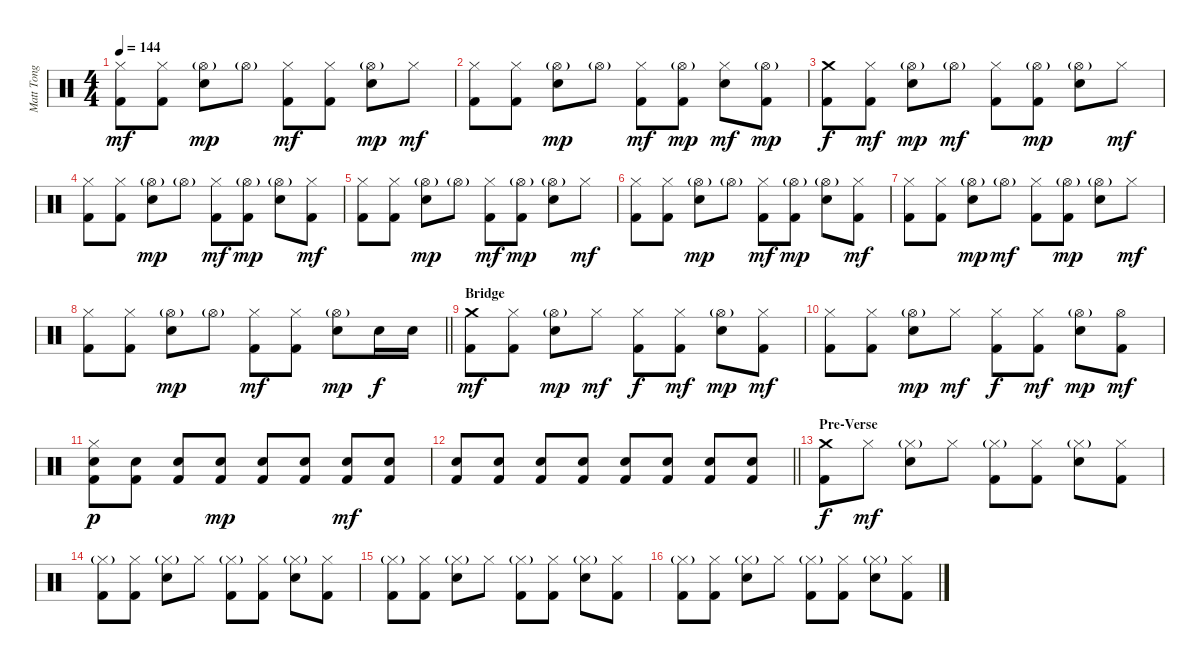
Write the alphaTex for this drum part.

\track ("Matt Tong" "Matt Tong") {instrument percussion}
\staff {score}
\articulation defaults
\ts (4 4)
\tempo 144
\clef neutral
\ks c
("Hi-Hat (closed)" "Kick (hit) 2").8{dy mf} ("Hi-Hat (closed)" "Kick (hit) 2").8 ("Hi-Hat (open)"{g} "Electric Snare (hit)").8{dy mp} "Hi-Hat (open)"{g}.8 ("Hi-Hat (closed)" "Kick (hit) 2").8{dy mf} ("Hi-Hat (closed)" "Kick (hit) 2").8 ("Hi-Hat (open)"{g} "Electric Snare (hit)").8{dy mp} "Hi-Hat (closed)".8{dy mf} |
("Hi-Hat (closed)" "Kick (hit) 2").8 ("Hi-Hat (closed)" "Kick (hit) 2").8 ("Hi-Hat (open)"{g} "Electric Snare (hit)").8{dy mp} "Hi-Hat (open)"{g}.8 ("Hi-Hat (closed)" "Kick (hit) 2").8{dy mf} ("Hi-Hat (open)"{g} "Kick (hit) 2").8{dy mp} ("Hi-Hat (closed)" "Electric Snare (hit)").8{dy mf} ("Hi-Hat (open)"{g} "Kick (hit) 2").8{dy mp} |
("Crash medium (hit)" "Kick (hit) 2").8{dy f} ("Hi-Hat (closed)" "Kick (hit) 2").8{dy mf} ("Hi-Hat (open)"{g} "Electric Snare (hit)").8{dy mp} "Hi-Hat (open)"{g}.8{dy mf} ("Hi-Hat (closed)" "Kick (hit) 2").8 ("Hi-Hat (open)"{g} "Kick (hit) 2").8{dy mp} ("Hi-Hat (open)"{g} "Electric Snare (hit)").8 "Hi-Hat (closed)".8{dy mf} |
("Hi-Hat (closed)" "Kick (hit) 2").8 ("Hi-Hat (closed)" "Kick (hit) 2").8 ("Hi-Hat (open)"{g} "Electric Snare (hit)").8{dy mp} "Hi-Hat (open)"{g}.8 ("Hi-Hat (closed)" "Kick (hit) 2").8{dy mf} ("Hi-Hat (open)"{g} "Kick (hit) 2").8{dy mp} ("Hi-Hat (open)"{g} "Electric Snare (hit)").8 ("Hi-Hat (closed)" "Kick (hit) 2").8{dy mf} |
("Hi-Hat (closed)" "Kick (hit) 2").8 ("Hi-Hat (closed)" "Kick (hit) 2").8 ("Hi-Hat (open)"{g} "Electric Snare (hit)").8{dy mp} "Hi-Hat (open)"{g}.8 ("Hi-Hat (closed)" "Kick (hit) 2").8{dy mf} ("Hi-Hat (open)"{g} "Kick (hit) 2").8{dy mp} ("Hi-Hat (open)"{g} "Electric Snare (hit)").8 "Hi-Hat (closed)".8{dy mf} |
("Hi-Hat (closed)" "Kick (hit) 2").8 ("Hi-Hat (closed)" "Kick (hit) 2").8 ("Hi-Hat (open)"{g} "Electric Snare (hit)").8{dy mp} "Hi-Hat (open)"{g}.8 ("Hi-Hat (closed)" "Kick (hit) 2").8{dy mf} ("Hi-Hat (open)"{g} "Kick (hit) 2").8{dy mp} ("Hi-Hat (open)"{g} "Electric Snare (hit)").8 ("Hi-Hat (closed)" "Kick (hit) 2").8{dy mf} |
("Hi-Hat (closed)" "Kick (hit) 2").8 ("Hi-Hat (closed)" "Kick (hit) 2").8 ("Hi-Hat (open)"{g} "Electric Snare (hit)").8{dy mp} "Hi-Hat (open)"{g}.8{dy mf} ("Hi-Hat (closed)" "Kick (hit) 2").8 ("Hi-Hat (open)"{g} "Kick (hit) 2").8{dy mp} ("Hi-Hat (open)"{g} "Electric Snare (hit)").8 "Hi-Hat (closed)".8{dy mf} |
\barLineRight lightlight
("Hi-Hat (closed)" "Kick (hit) 2").8 ("Hi-Hat (closed)" "Kick (hit) 2").8 ("Hi-Hat (open)"{g} "Electric Snare (hit)").8{dy mp} "Hi-Hat (open)"{g}.8 ("Hi-Hat (closed)" "Kick (hit) 2").8{dy mf} ("Hi-Hat (closed)" "Kick (hit) 2").8 ("Hi-Hat (open)"{g} "Electric Snare (hit)").8{dy mp} "Electric Snare (hit)".16{dy f} "Electric Snare (hit)".16 |
\section ("" "Bridge")
("Crash medium (hit)" "Kick (hit) 2").8{dy mf} ("Hi-Hat (closed)" "Kick (hit) 2").8 ("Hi-Hat (open)"{g} "Electric Snare (hit)").8{dy mp} "Hi-Hat (closed)".8{dy mf} ("Hi-Hat (closed)" "Kick (hit) 2").8{dy f} ("Hi-Hat (closed)" "Kick (hit) 2").8{dy mf} ("Hi-Hat (open)"{g} "Electric Snare (hit)").8{dy mp} ("Hi-Hat (closed)" "Kick (hit) 2").8{dy mf} |
("Hi-Hat (closed)" "Kick (hit) 2").8 ("Hi-Hat (closed)" "Kick (hit) 2").8 ("Hi-Hat (open)"{g} "Electric Snare (hit)").8{dy mp} "Hi-Hat (closed)".8{dy mf} ("Hi-Hat (closed)" "Kick (hit) 2").8{dy f} ("Hi-Hat (closed)" "Kick (hit) 2").8{dy mf} ("Hi-Hat (open)"{g} "Electric Snare (hit)").8{dy mp} ("Hi-Hat (open)" "Kick (hit) 2").8{dy mf} |
("Hi-Hat (closed)" "Electric Snare (hit)" "Kick (hit) 2").8{dy p} ("Electric Snare (hit)" "Kick (hit) 2").8 ("Electric Snare (hit)" "Kick (hit) 2").8 ("Electric Snare (hit)" "Kick (hit) 2").8{dy mp} ("Electric Snare (hit)" "Kick (hit) 2").8 ("Electric Snare (hit)" "Kick (hit) 2").8 ("Electric Snare (hit)" "Kick (hit) 2").8{dy mf} ("Electric Snare (hit)" "Kick (hit) 2").8 |
\barLineRight lightlight
("Electric Snare (hit)" "Kick (hit) 2").8 ("Electric Snare (hit)" "Kick (hit) 2").8 ("Electric Snare (hit)" "Kick (hit) 2").8 ("Electric Snare (hit)" "Kick (hit) 2").8 ("Electric Snare (hit)" "Kick (hit) 2").8 ("Electric Snare (hit)" "Kick (hit) 2").8 ("Electric Snare (hit)" "Kick (hit) 2").8 ("Electric Snare (hit)" "Kick (hit) 2").8 |
\section ("" "Pre-Verse")
("Crash medium (hit)" "Kick (hit) 2").8{dy f} "Hi-Hat (closed)".8{dy mf} ("Hi-Hat (closed)"{g} "Electric Snare (hit)").8 "Hi-Hat (closed)".8 ("Hi-Hat (closed)"{g} "Kick (hit) 2").8 ("Hi-Hat (closed)" "Kick (hit) 2").8 ("Hi-Hat (closed)"{g} "Electric Snare (hit)").8 ("Hi-Hat (closed)" "Kick (hit) 2").8 |
("Hi-Hat (closed)"{g} "Kick (hit) 2").8 ("Hi-Hat (closed)" "Kick (hit) 2").8 ("Hi-Hat (closed)"{g} "Electric Snare (hit)").8 "Hi-Hat (closed)".8 ("Hi-Hat (closed)"{g} "Kick (hit) 2").8 ("Hi-Hat (closed)" "Kick (hit) 2").8 ("Hi-Hat (closed)"{g} "Electric Snare (hit)").8 ("Hi-Hat (closed)" "Kick (hit) 2").8 |
("Hi-Hat (closed)"{g} "Kick (hit) 2").8 ("Hi-Hat (closed)" "Kick (hit) 2").8 ("Hi-Hat (closed)"{g} "Electric Snare (hit)").8 "Hi-Hat (closed)".8 ("Hi-Hat (closed)"{g} "Kick (hit) 2").8 ("Hi-Hat (closed)" "Kick (hit) 2").8 ("Hi-Hat (closed)"{g} "Electric Snare (hit)").8 ("Hi-Hat (closed)" "Kick (hit) 2").8 |
("Hi-Hat (closed)"{g} "Kick (hit) 2").8 ("Hi-Hat (closed)" "Kick (hit) 2").8 ("Hi-Hat (closed)"{g} "Electric Snare (hit)").8 "Hi-Hat (closed)".8 ("Hi-Hat (closed)"{g} "Kick (hit) 2").8 ("Hi-Hat (closed)" "Kick (hit) 2").8 ("Hi-Hat (closed)"{g} "Electric Snare (hit)").8 ("Hi-Hat (closed)" "Kick (hit) 2").8
